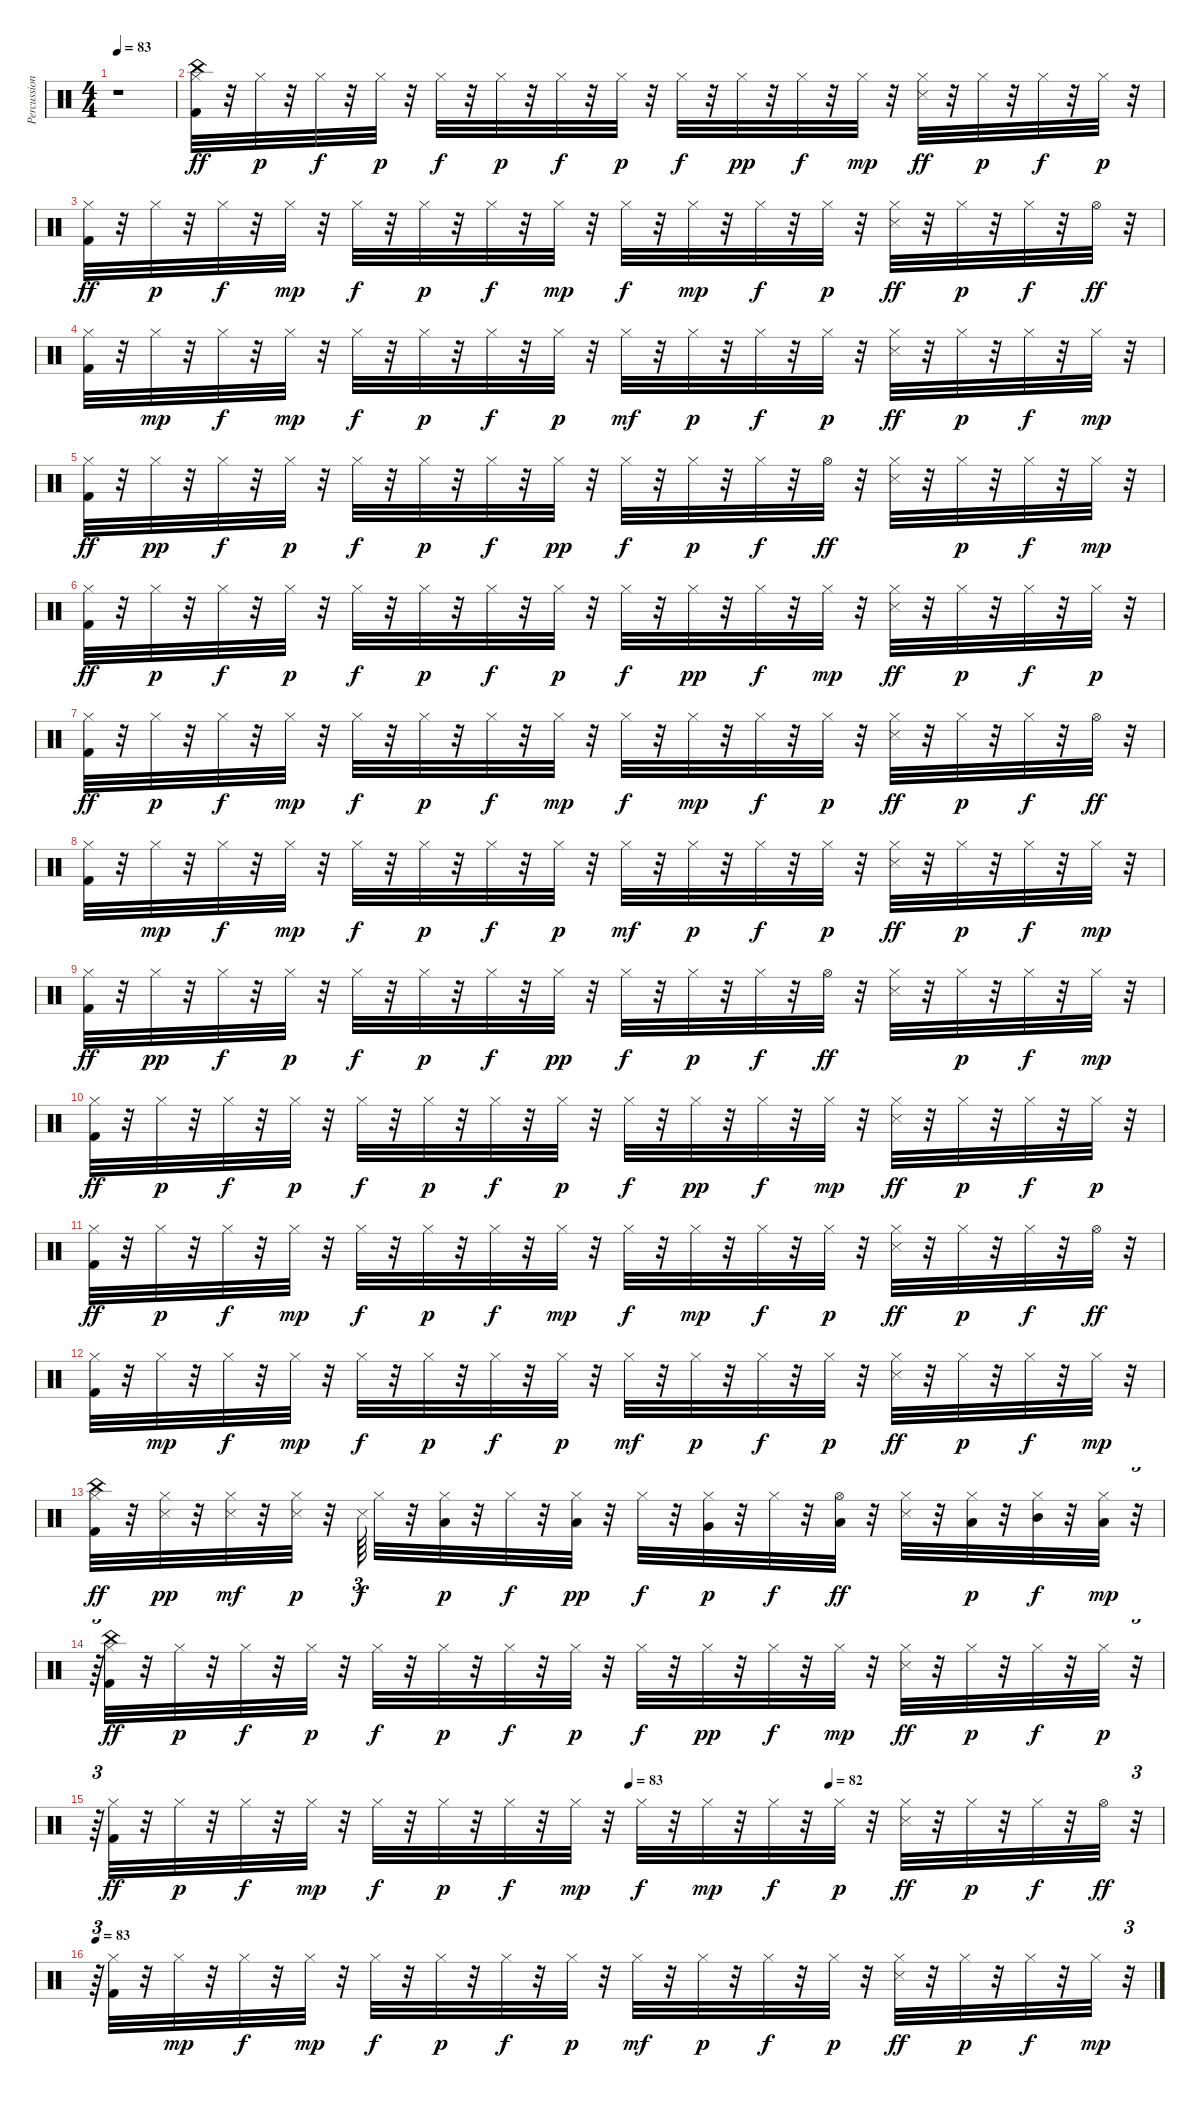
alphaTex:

\track ("Percussion" "Percussion") {instrument percussion}
\staff {score}
\articulation defaults
\ts (4 4)
\tempo 83
\clef neutral
\ks c
r.1{dy ff} |
("China (hit)" "Hi-Hat (closed)" "Kick (hit) 2").32 r.32 "Hi-Hat (closed)".32{dy p} r.32 "Hi-Hat (closed)".32{dy f} r.32 "Hi-Hat (closed)".32{dy p} r.32 "Hi-Hat (closed)".32{dy f} r.32 "Hi-Hat (closed)".32{dy p} r.32 "Hi-Hat (closed)".32{dy f} r.32 "Hi-Hat (closed)".32{dy p} r.32 "Hi-Hat (closed)".32{dy f} r.32 "Hi-Hat (closed)".32{dy pp} r.32 "Hi-Hat (closed)".32{dy f} r.32 "Hi-Hat (closed)".32{dy mp} r.32 ("Snare (side stick) 3" "Hi-Hat (closed)").32{dy ff} r.32 "Hi-Hat (closed)".32{dy p} r.32 "Hi-Hat (closed)".32{dy f} r.32 "Hi-Hat (closed)".32{dy p} r.32 |
("Hi-Hat (closed)" "Kick (hit) 2").32{dy ff} r.32 "Hi-Hat (closed)".32{dy p} r.32 "Hi-Hat (closed)".32{dy f} r.32 "Hi-Hat (closed)".32{dy mp} r.32 "Hi-Hat (closed)".32{dy f} r.32 "Hi-Hat (closed)".32{dy p} r.32 "Hi-Hat (closed)".32{dy f} r.32 "Hi-Hat (closed)".32{dy mp} r.32 "Hi-Hat (closed)".32{dy f} r.32 "Hi-Hat (closed)".32{dy mp} r.32 "Hi-Hat (closed)".32{dy f} r.32 "Hi-Hat (closed)".32{dy p} r.32 ("Snare (side stick) 3" "Hi-Hat (closed)").32{dy ff} r.32 "Hi-Hat (closed)".32{dy p} r.32 "Hi-Hat (closed)".32{dy f} r.32 "Hi-Hat (open)".32{dy ff} r.32 |
("Kick (hit) 2" "Hi-Hat (closed)").32 r.32 "Hi-Hat (closed)".32{dy mp} r.32 "Hi-Hat (closed)".32{dy f} r.32 "Hi-Hat (closed)".32{dy mp} r.32 "Hi-Hat (closed)".32{dy f} r.32 "Hi-Hat (closed)".32{dy p} r.32 "Hi-Hat (closed)".32{dy f} r.32 "Hi-Hat (closed)".32{dy p} r.32 "Hi-Hat (closed)".32{dy mf} r.32 "Hi-Hat (closed)".32{dy p} r.32 "Hi-Hat (closed)".32{dy f} r.32 "Hi-Hat (closed)".32{dy p} r.32 ("Snare (side stick) 3" "Hi-Hat (closed)").32{dy ff} r.32 "Hi-Hat (closed)".32{dy p} r.32 "Hi-Hat (closed)".32{dy f} r.32 "Hi-Hat (closed)".32{dy mp} r.32 |
("Hi-Hat (closed)" "Kick (hit) 2").32{dy ff} r.32 "Hi-Hat (closed)".32{dy pp} r.32 "Hi-Hat (closed)".32{dy f} r.32 "Hi-Hat (closed)".32{dy p} r.32 "Hi-Hat (closed)".32{dy f} r.32 "Hi-Hat (closed)".32{dy p} r.32 "Hi-Hat (closed)".32{dy f} r.32 "Hi-Hat (closed)".32{dy pp} r.32 "Hi-Hat (closed)".32{dy f} r.32 "Hi-Hat (closed)".32{dy p} r.32 "Hi-Hat (closed)".32{dy f} r.32 "Hi-Hat (open)".32{dy ff} r.32 ("Snare (side stick) 3" "Hi-Hat (closed)").32 r.32 "Hi-Hat (closed)".32{dy p} r.32 "Hi-Hat (closed)".32{dy f} r.32 "Hi-Hat (closed)".32{dy mp} r.32 |
("Hi-Hat (closed)" "Kick (hit) 2").32{dy ff} r.32 "Hi-Hat (closed)".32{dy p} r.32 "Hi-Hat (closed)".32{dy f} r.32 "Hi-Hat (closed)".32{dy p} r.32 "Hi-Hat (closed)".32{dy f} r.32 "Hi-Hat (closed)".32{dy p} r.32 "Hi-Hat (closed)".32{dy f} r.32 "Hi-Hat (closed)".32{dy p} r.32 "Hi-Hat (closed)".32{dy f} r.32 "Hi-Hat (closed)".32{dy pp} r.32 "Hi-Hat (closed)".32{dy f} r.32 "Hi-Hat (closed)".32{dy mp} r.32 ("Snare (side stick) 3" "Hi-Hat (closed)").32{dy ff} r.32 "Hi-Hat (closed)".32{dy p} r.32 "Hi-Hat (closed)".32{dy f} r.32 "Hi-Hat (closed)".32{dy p} r.32 |
("Hi-Hat (closed)" "Kick (hit) 2").32{dy ff} r.32 "Hi-Hat (closed)".32{dy p} r.32 "Hi-Hat (closed)".32{dy f} r.32 "Hi-Hat (closed)".32{dy mp} r.32 "Hi-Hat (closed)".32{dy f} r.32 "Hi-Hat (closed)".32{dy p} r.32 "Hi-Hat (closed)".32{dy f} r.32 "Hi-Hat (closed)".32{dy mp} r.32 "Hi-Hat (closed)".32{dy f} r.32 "Hi-Hat (closed)".32{dy mp} r.32 "Hi-Hat (closed)".32{dy f} r.32 "Hi-Hat (closed)".32{dy p} r.32 ("Snare (side stick) 3" "Hi-Hat (closed)").32{dy ff} r.32 "Hi-Hat (closed)".32{dy p} r.32 "Hi-Hat (closed)".32{dy f} r.32 "Hi-Hat (open)".32{dy ff} r.32 |
("Kick (hit) 2" "Hi-Hat (closed)").32 r.32 "Hi-Hat (closed)".32{dy mp} r.32 "Hi-Hat (closed)".32{dy f} r.32 "Hi-Hat (closed)".32{dy mp} r.32 "Hi-Hat (closed)".32{dy f} r.32 "Hi-Hat (closed)".32{dy p} r.32 "Hi-Hat (closed)".32{dy f} r.32 "Hi-Hat (closed)".32{dy p} r.32 "Hi-Hat (closed)".32{dy mf} r.32 "Hi-Hat (closed)".32{dy p} r.32 "Hi-Hat (closed)".32{dy f} r.32 "Hi-Hat (closed)".32{dy p} r.32 ("Snare (side stick) 3" "Hi-Hat (closed)").32{dy ff} r.32 "Hi-Hat (closed)".32{dy p} r.32 "Hi-Hat (closed)".32{dy f} r.32 "Hi-Hat (closed)".32{dy mp} r.32 |
("Hi-Hat (closed)" "Kick (hit) 2").32{dy ff} r.32 "Hi-Hat (closed)".32{dy pp} r.32 "Hi-Hat (closed)".32{dy f} r.32 "Hi-Hat (closed)".32{dy p} r.32 "Hi-Hat (closed)".32{dy f} r.32 "Hi-Hat (closed)".32{dy p} r.32 "Hi-Hat (closed)".32{dy f} r.32 "Hi-Hat (closed)".32{dy pp} r.32 "Hi-Hat (closed)".32{dy f} r.32 "Hi-Hat (closed)".32{dy p} r.32 "Hi-Hat (closed)".32{dy f} r.32 "Hi-Hat (open)".32{dy ff} r.32 ("Snare (side stick) 3" "Hi-Hat (closed)").32 r.32 "Hi-Hat (closed)".32{dy p} r.32 "Hi-Hat (closed)".32{dy f} r.32 "Hi-Hat (closed)".32{dy mp} r.32 |
("Hi-Hat (closed)" "Kick (hit) 2").32{dy ff} r.32 "Hi-Hat (closed)".32{dy p} r.32 "Hi-Hat (closed)".32{dy f} r.32 "Hi-Hat (closed)".32{dy p} r.32 "Hi-Hat (closed)".32{dy f} r.32 "Hi-Hat (closed)".32{dy p} r.32 "Hi-Hat (closed)".32{dy f} r.32 "Hi-Hat (closed)".32{dy p} r.32 "Hi-Hat (closed)".32{dy f} r.32 "Hi-Hat (closed)".32{dy pp} r.32 "Hi-Hat (closed)".32{dy f} r.32 "Hi-Hat (closed)".32{dy mp} r.32 ("Snare (side stick) 3" "Hi-Hat (closed)").32{dy ff} r.32 "Hi-Hat (closed)".32{dy p} r.32 "Hi-Hat (closed)".32{dy f} r.32 "Hi-Hat (closed)".32{dy p} r.32 |
("Hi-Hat (closed)" "Kick (hit) 2").32{dy ff} r.32 "Hi-Hat (closed)".32{dy p} r.32 "Hi-Hat (closed)".32{dy f} r.32 "Hi-Hat (closed)".32{dy mp} r.32 "Hi-Hat (closed)".32{dy f} r.32 "Hi-Hat (closed)".32{dy p} r.32 "Hi-Hat (closed)".32{dy f} r.32 "Hi-Hat (closed)".32{dy mp} r.32 "Hi-Hat (closed)".32{dy f} r.32 "Hi-Hat (closed)".32{dy mp} r.32 "Hi-Hat (closed)".32{dy f} r.32 "Hi-Hat (closed)".32{dy p} r.32 ("Snare (side stick) 3" "Hi-Hat (closed)").32{dy ff} r.32 "Hi-Hat (closed)".32{dy p} r.32 "Hi-Hat (closed)".32{dy f} r.32 "Hi-Hat (open)".32{dy ff} r.32 |
("Kick (hit) 2" "Hi-Hat (closed)").32 r.32 "Hi-Hat (closed)".32{dy mp} r.32 "Hi-Hat (closed)".32{dy f} r.32 "Hi-Hat (closed)".32{dy mp} r.32 "Hi-Hat (closed)".32{dy f} r.32 "Hi-Hat (closed)".32{dy p} r.32 "Hi-Hat (closed)".32{dy f} r.32 "Hi-Hat (closed)".32{dy p} r.32 "Hi-Hat (closed)".32{dy mf} r.32 "Hi-Hat (closed)".32{dy p} r.32 "Hi-Hat (closed)".32{dy f} r.32 "Hi-Hat (closed)".32{dy p} r.32 ("Snare (side stick) 3" "Hi-Hat (closed)").32{dy ff} r.32 "Hi-Hat (closed)".32{dy p} r.32 "Hi-Hat (closed)".32{dy f} r.32 "Hi-Hat (closed)".32{dy mp} r.32 |
("China (hit)" "Hi-Hat (closed)" "Kick (hit) 2").32{dy ff} r.32 ("Snare (side stick) 3" "Hi-Hat (closed)").32{dy pp} r.32 ("Hi-Hat (closed)" "Snare (side stick) 3").32{dy mf} r.32 ("Snare (side stick) 3" "Hi-Hat (closed)").32{dy p} r.32 "Snare (side stick) 3".64{tu (3 2) dy f} "Hi-Hat (closed)".32 r.32 ("Low Tom (hit)" "Hi-Hat (closed)").32{dy p} r.32 "Hi-Hat (closed)".32{dy f} r.32 ("Low Tom (hit)" "Hi-Hat (closed)").32{dy pp} r.32 "Hi-Hat (closed)".32{dy f} r.32 ("Very Low Tom (hit)" "Hi-Hat (closed)").32{dy p} r.32 "Hi-Hat (closed)".32{dy f} r.32 ("Low Tom (hit)" "Hi-Hat (open)").32{dy ff} r.32 ("Snare (side stick) 3" "Hi-Hat (closed)").32 r.32 ("Low Tom (hit)" "Hi-Hat (closed)").32{dy p} r.32 ("Mid Tom (hit)" "Hi-Hat (closed)").32{dy f} r.32 ("Low Floor Tom (hit)" "Hi-Hat (closed)").32{dy mp} r.32{tu (3 2)} |
r.64{tu (3 2)} ("China (hit)" "Hi-Hat (closed)" "Kick (hit) 2").32{dy ff} r.32 "Hi-Hat (closed)".32{dy p} r.32 "Hi-Hat (closed)".32{dy f} r.32 "Hi-Hat (closed)".32{dy p} r.32 "Hi-Hat (closed)".32{dy f} r.32 "Hi-Hat (closed)".32{dy p} r.32 "Hi-Hat (closed)".32{dy f} r.32 "Hi-Hat (closed)".32{dy p} r.32 "Hi-Hat (closed)".32{dy f} r.32 "Hi-Hat (closed)".32{dy pp} r.32 "Hi-Hat (closed)".32{dy f} r.32 "Hi-Hat (closed)".32{dy mp} r.32 ("Snare (side stick) 3" "Hi-Hat (closed)").32{dy ff} r.32 "Hi-Hat (closed)".32{dy p} r.32 "Hi-Hat (closed)".32{dy f} r.32 "Hi-Hat (closed)".32{dy p} r.32{tu (3 2)} |
\tempo (83 0.5)
\tempo (82 0.6875)
r.64{tu (3 2)} ("Hi-Hat (closed)" "Kick (hit) 2").32{dy ff} r.32 "Hi-Hat (closed)".32{dy p} r.32 "Hi-Hat (closed)".32{dy f} r.32 "Hi-Hat (closed)".32{dy mp} r.32 "Hi-Hat (closed)".32{dy f} r.32 "Hi-Hat (closed)".32{dy p} r.32 "Hi-Hat (closed)".32{dy f} r.32 "Hi-Hat (closed)".32{dy mp} r.32 "Hi-Hat (closed)".32{dy f} r.32 "Hi-Hat (closed)".32{dy mp} r.32 "Hi-Hat (closed)".32{dy f} r.32 "Hi-Hat (closed)".32{dy p} r.32 ("Snare (side stick) 3" "Hi-Hat (closed)").32{dy ff} r.32 "Hi-Hat (closed)".32{dy p} r.32 "Hi-Hat (closed)".32{dy f} r.32 "Hi-Hat (open)".32{dy ff} r.32{tu (3 2)} |
\tempo 83
r.64{tu (3 2)} ("Kick (hit) 2" "Hi-Hat (closed)").32 r.32 "Hi-Hat (closed)".32{dy mp} r.32 "Hi-Hat (closed)".32{dy f} r.32 "Hi-Hat (closed)".32{dy mp} r.32 "Hi-Hat (closed)".32{dy f} r.32 "Hi-Hat (closed)".32{dy p} r.32 "Hi-Hat (closed)".32{dy f} r.32 "Hi-Hat (closed)".32{dy p} r.32 "Hi-Hat (closed)".32{dy mf} r.32 "Hi-Hat (closed)".32{dy p} r.32 "Hi-Hat (closed)".32{dy f} r.32 "Hi-Hat (closed)".32{dy p} r.32 ("Snare (side stick) 3" "Hi-Hat (closed)").32{dy ff} r.32 "Hi-Hat (closed)".32{dy p} r.32 "Hi-Hat (closed)".32{dy f} r.32 "Hi-Hat (closed)".32{dy mp} r.32{tu (3 2)}
